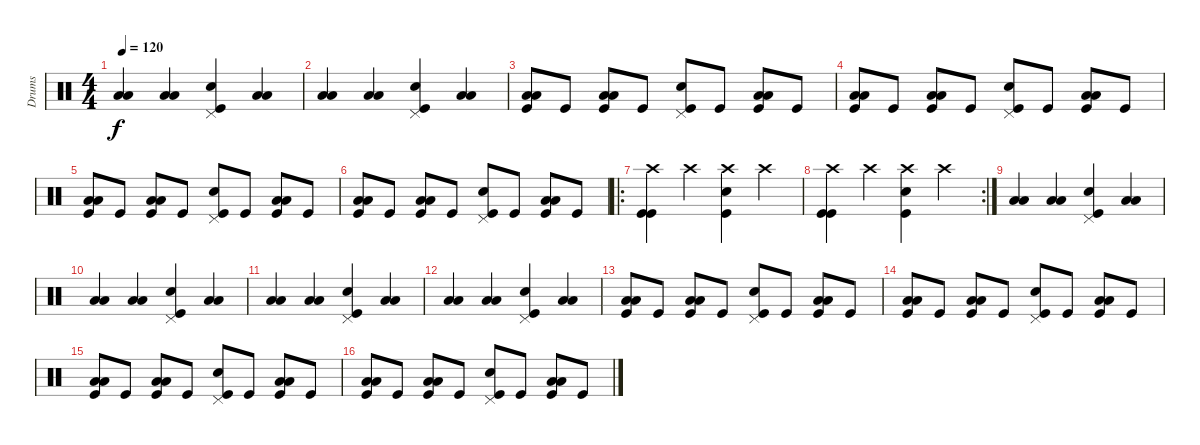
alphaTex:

\track ("Drums" "Drums") {instrument percussion}
\staff {score}
\articulation defaults
\ts (4 4)
\tempo 120
\clef neutral
\ks c
("Low Tom (hit)" "Low Tom (hit)").4{dy f} ("Low Tom (hit)" "Low Tom (hit)").4 ("Pedal Hi-Hat (hit)" "Snare (hit) 2" "Kick (hit)").4 ("Low Tom (hit)" "Low Tom (hit)").4 |
("Low Tom (hit)" "Low Tom (hit)").4 ("Low Tom (hit)" "Low Tom (hit)").4 ("Pedal Hi-Hat (hit)" "Snare (hit) 2" "Kick (hit)").4 ("Low Tom (hit)" "Low Tom (hit)").4 |
("Low Tom (hit)" "Low Tom (hit)" "Kick (hit)").8 "Kick (hit)".8 ("Low Tom (hit)" "Low Tom (hit)" "Kick (hit)").8 "Kick (hit)".8 ("Pedal Hi-Hat (hit)" "Snare (hit) 2" "Kick (hit)").8 "Kick (hit)".8 ("Low Tom (hit)" "Low Tom (hit)" "Kick (hit)").8 "Kick (hit)".8 |
("Low Tom (hit)" "Low Tom (hit)" "Kick (hit)").8 "Kick (hit)".8 ("Low Tom (hit)" "Low Tom (hit)" "Kick (hit)").8 "Kick (hit)".8 ("Pedal Hi-Hat (hit)" "Snare (hit) 2" "Kick (hit)").8 "Kick (hit)".8 ("Low Tom (hit)" "Low Tom (hit)" "Kick (hit)").8 "Kick (hit)".8 |
("Low Tom (hit)" "Low Tom (hit)" "Kick (hit)").8 "Kick (hit)".8 ("Low Tom (hit)" "Low Tom (hit)" "Kick (hit)").8 "Kick (hit)".8 ("Pedal Hi-Hat (hit)" "Snare (hit) 2" "Kick (hit)").8 "Kick (hit)".8 ("Low Tom (hit)" "Low Tom (hit)" "Kick (hit)").8 "Kick (hit)".8 |
("Low Tom (hit)" "Low Tom (hit)" "Kick (hit)").8 "Kick (hit)".8 ("Low Tom (hit)" "Low Tom (hit)" "Kick (hit)").8 "Kick (hit)".8 ("Pedal Hi-Hat (hit)" "Snare (hit) 2" "Kick (hit)").8 "Kick (hit)".8 ("Low Tom (hit)" "Low Tom (hit)" "Kick (hit)").8 "Kick (hit)".8 |
\ro
("Crash high (hit)" "Kick (hit)" "Kick (hit)").4 "Crash high (hit)".4 ("Crash high (hit)" "Snare (hit) 2" "Kick (hit)").4 "Crash high (hit)".4 |
\rc 2
("Crash high (hit)" "Kick (hit)" "Kick (hit)").4 "Crash high (hit)".4 ("Crash high (hit)" "Snare (hit) 2" "Kick (hit)").4 "Crash high (hit)".4 |
("Low Tom (hit)" "Low Tom (hit)").4 ("Low Tom (hit)" "Low Tom (hit)").4 ("Pedal Hi-Hat (hit)" "Snare (hit) 2" "Kick (hit)").4 ("Low Tom (hit)" "Low Tom (hit)").4 |
("Low Tom (hit)" "Low Tom (hit)").4 ("Low Tom (hit)" "Low Tom (hit)").4 ("Pedal Hi-Hat (hit)" "Snare (hit) 2" "Kick (hit)").4 ("Low Tom (hit)" "Low Tom (hit)").4 |
("Low Tom (hit)" "Low Tom (hit)").4 ("Low Tom (hit)" "Low Tom (hit)").4 ("Pedal Hi-Hat (hit)" "Snare (hit) 2" "Kick (hit)").4 ("Low Tom (hit)" "Low Tom (hit)").4 |
("Low Tom (hit)" "Low Tom (hit)").4 ("Low Tom (hit)" "Low Tom (hit)").4 ("Pedal Hi-Hat (hit)" "Snare (hit) 2" "Kick (hit)").4 ("Low Tom (hit)" "Low Tom (hit)").4 |
("Low Tom (hit)" "Low Tom (hit)" "Kick (hit)").8 "Kick (hit)".8 ("Low Tom (hit)" "Low Tom (hit)" "Kick (hit)").8 "Kick (hit)".8 ("Pedal Hi-Hat (hit)" "Snare (hit) 2" "Kick (hit)").8 "Kick (hit)".8 ("Low Tom (hit)" "Low Tom (hit)" "Kick (hit)").8 "Kick (hit)".8 |
("Low Tom (hit)" "Low Tom (hit)" "Kick (hit)").8 "Kick (hit)".8 ("Low Tom (hit)" "Low Tom (hit)" "Kick (hit)").8 "Kick (hit)".8 ("Pedal Hi-Hat (hit)" "Snare (hit) 2" "Kick (hit)").8 "Kick (hit)".8 ("Low Tom (hit)" "Low Tom (hit)" "Kick (hit)").8 "Kick (hit)".8 |
("Low Tom (hit)" "Low Tom (hit)" "Kick (hit)").8 "Kick (hit)".8 ("Low Tom (hit)" "Low Tom (hit)" "Kick (hit)").8 "Kick (hit)".8 ("Pedal Hi-Hat (hit)" "Snare (hit) 2" "Kick (hit)").8 "Kick (hit)".8 ("Low Tom (hit)" "Low Tom (hit)" "Kick (hit)").8 "Kick (hit)".8 |
("Low Tom (hit)" "Low Tom (hit)" "Kick (hit)").8 "Kick (hit)".8 ("Low Tom (hit)" "Low Tom (hit)" "Kick (hit)").8 "Kick (hit)".8 ("Pedal Hi-Hat (hit)" "Snare (hit) 2" "Kick (hit)").8 "Kick (hit)".8 ("Low Tom (hit)" "Low Tom (hit)" "Kick (hit)").8 "Kick (hit)".8
